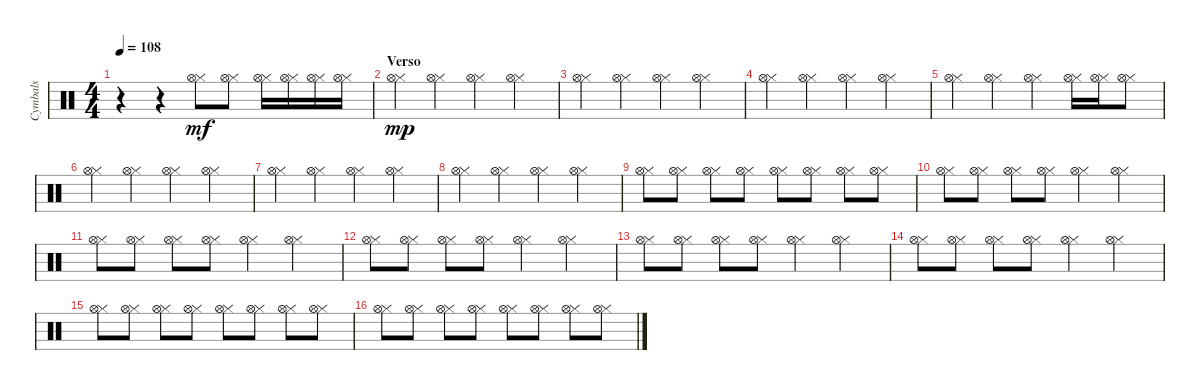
\track ("Cymbals" "Cymbals") {instrument percussion}
\staff {score}
\articulation defaults
\ts (4 4)
\tempo 108
\clef neutral
\ks c
r.4{dy mp} r.4 ("Hi-Hat (closed)" "Hi-Hat (open)").8{dy mf} ("Hi-Hat (closed)" "Hi-Hat (open)").8 ("Hi-Hat (closed)" "Hi-Hat (open)").16 ("Hi-Hat (closed)" "Hi-Hat (open)").16 ("Hi-Hat (closed)" "Hi-Hat (open)").16 ("Hi-Hat (closed)" "Hi-Hat (open)").16 |
\section ("" "Verso")
("Hi-Hat (closed)" "Hi-Hat (open)").4{dy mp} ("Hi-Hat (closed)" "Hi-Hat (open)").4 ("Hi-Hat (closed)" "Hi-Hat (open)").4 ("Hi-Hat (closed)" "Hi-Hat (open)").4 |
("Hi-Hat (closed)" "Hi-Hat (open)").4 ("Hi-Hat (closed)" "Hi-Hat (open)").4 ("Hi-Hat (closed)" "Hi-Hat (open)").4 ("Hi-Hat (closed)" "Hi-Hat (open)").4 |
("Hi-Hat (closed)" "Hi-Hat (open)").4 ("Hi-Hat (closed)" "Hi-Hat (open)").4 ("Hi-Hat (closed)" "Hi-Hat (open)").4 ("Hi-Hat (closed)" "Hi-Hat (open)").4 |
("Hi-Hat (closed)" "Hi-Hat (open)").4 ("Hi-Hat (closed)" "Hi-Hat (open)").4 ("Hi-Hat (closed)" "Hi-Hat (open)").4 ("Hi-Hat (closed)" "Hi-Hat (open)").16 ("Hi-Hat (closed)" "Hi-Hat (open)").16 ("Hi-Hat (closed)" "Hi-Hat (open)").8 |
("Hi-Hat (closed)" "Hi-Hat (open)").4 ("Hi-Hat (closed)" "Hi-Hat (open)").4 ("Hi-Hat (closed)" "Hi-Hat (open)").4 ("Hi-Hat (closed)" "Hi-Hat (open)").4 |
("Hi-Hat (closed)" "Hi-Hat (open)").4 ("Hi-Hat (closed)" "Hi-Hat (open)").4 ("Hi-Hat (closed)" "Hi-Hat (open)").4 ("Hi-Hat (closed)" "Hi-Hat (open)").4 |
("Hi-Hat (closed)" "Hi-Hat (open)").4 ("Hi-Hat (closed)" "Hi-Hat (open)").4 ("Hi-Hat (closed)" "Hi-Hat (open)").4 ("Hi-Hat (closed)" "Hi-Hat (open)").4 |
("Hi-Hat (closed)" "Hi-Hat (open)").8 ("Hi-Hat (closed)" "Hi-Hat (open)").8 ("Hi-Hat (closed)" "Hi-Hat (open)").8 ("Hi-Hat (closed)" "Hi-Hat (open)").8 ("Hi-Hat (closed)" "Hi-Hat (open)").8 ("Hi-Hat (closed)" "Hi-Hat (open)").8 ("Hi-Hat (closed)" "Hi-Hat (open)").8 ("Hi-Hat (closed)" "Hi-Hat (open)").8 |
("Hi-Hat (closed)" "Hi-Hat (open)").8 ("Hi-Hat (closed)" "Hi-Hat (open)").8 ("Hi-Hat (closed)" "Hi-Hat (open)").8 ("Hi-Hat (closed)" "Hi-Hat (open)").8 ("Hi-Hat (closed)" "Hi-Hat (open)").4 ("Hi-Hat (closed)" "Hi-Hat (open)").4 |
("Hi-Hat (closed)" "Hi-Hat (open)").8 ("Hi-Hat (closed)" "Hi-Hat (open)").8 ("Hi-Hat (closed)" "Hi-Hat (open)").8 ("Hi-Hat (closed)" "Hi-Hat (open)").8 ("Hi-Hat (closed)" "Hi-Hat (open)").4 ("Hi-Hat (closed)" "Hi-Hat (open)").4 |
("Hi-Hat (closed)" "Hi-Hat (open)").8 ("Hi-Hat (closed)" "Hi-Hat (open)").8 ("Hi-Hat (closed)" "Hi-Hat (open)").8 ("Hi-Hat (closed)" "Hi-Hat (open)").8 ("Hi-Hat (closed)" "Hi-Hat (open)").4 ("Hi-Hat (closed)" "Hi-Hat (open)").4 |
("Hi-Hat (closed)" "Hi-Hat (open)").8 ("Hi-Hat (closed)" "Hi-Hat (open)").8 ("Hi-Hat (closed)" "Hi-Hat (open)").8 ("Hi-Hat (closed)" "Hi-Hat (open)").8 ("Hi-Hat (closed)" "Hi-Hat (open)").4 ("Hi-Hat (closed)" "Hi-Hat (open)").4 |
("Hi-Hat (closed)" "Hi-Hat (open)").8 ("Hi-Hat (closed)" "Hi-Hat (open)").8 ("Hi-Hat (closed)" "Hi-Hat (open)").8 ("Hi-Hat (closed)" "Hi-Hat (open)").8 ("Hi-Hat (closed)" "Hi-Hat (open)").4 ("Hi-Hat (closed)" "Hi-Hat (open)").4 |
("Hi-Hat (closed)" "Hi-Hat (open)").8 ("Hi-Hat (closed)" "Hi-Hat (open)").8 ("Hi-Hat (closed)" "Hi-Hat (open)").8 ("Hi-Hat (closed)" "Hi-Hat (open)").8 ("Hi-Hat (closed)" "Hi-Hat (open)").8 ("Hi-Hat (closed)" "Hi-Hat (open)").8 ("Hi-Hat (closed)" "Hi-Hat (open)").8 ("Hi-Hat (closed)" "Hi-Hat (open)").8 |
("Hi-Hat (closed)" "Hi-Hat (open)").8 ("Hi-Hat (closed)" "Hi-Hat (open)").8 ("Hi-Hat (closed)" "Hi-Hat (open)").8 ("Hi-Hat (closed)" "Hi-Hat (open)").8 ("Hi-Hat (closed)" "Hi-Hat (open)").8 ("Hi-Hat (closed)" "Hi-Hat (open)").8 ("Hi-Hat (closed)" "Hi-Hat (open)").8 ("Hi-Hat (closed)" "Hi-Hat (open)").8
